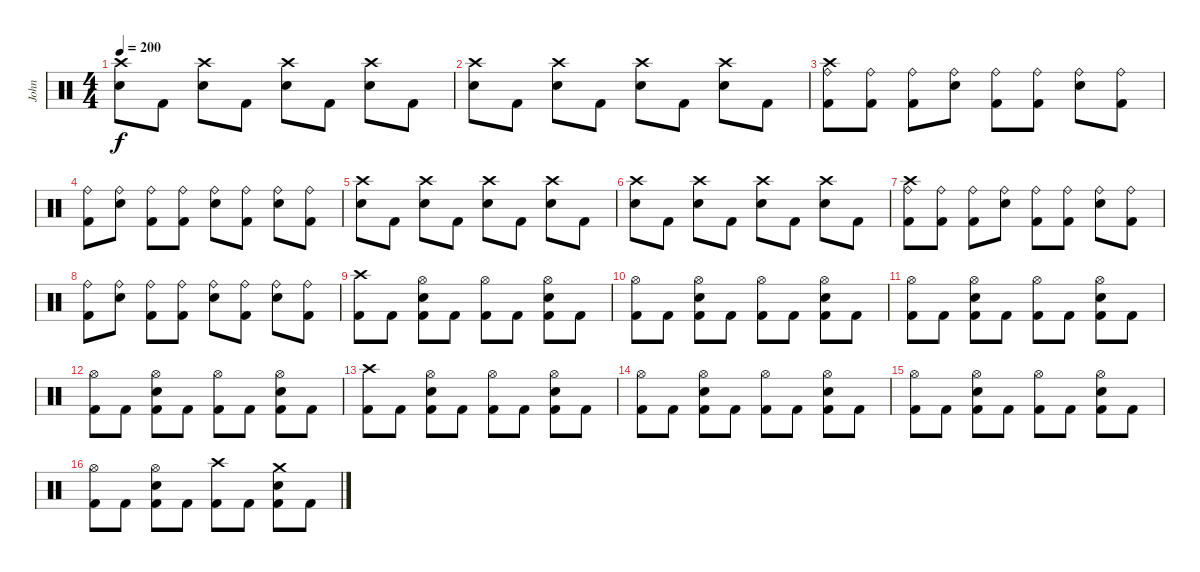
\track ("John" "John") {instrument percussion}
\staff {score}
\articulation defaults
\ts (4 4)
\tempo 200
\clef neutral
\ks c
("Crash high (hit)" "Electric Snare (hit)").8{dy f} "Kick (hit) 2".8 ("Crash high (hit)" "Electric Snare (hit)").8 "Kick (hit) 2".8 ("Crash high (hit)" "Electric Snare (hit)").8 "Kick (hit) 2".8 ("Crash high (hit)" "Electric Snare (hit)").8 "Kick (hit) 2".8 |
("Crash high (hit)" "Electric Snare (hit)").8 "Kick (hit) 2".8 ("Crash high (hit)" "Electric Snare (hit)").8 "Kick (hit) 2".8 ("Crash high (hit)" "Electric Snare (hit)").8 "Kick (hit) 2".8 ("Crash high (hit)" "Electric Snare (hit)").8 "Kick (hit) 2".8 |
("Ride (bell)" "Crash high (hit)" "Kick (hit) 2").8 ("Ride (bell)" "Kick (hit) 2").8 ("Ride (bell)" "Kick (hit) 2").8 ("Ride (bell)" "Electric Snare (hit)").8 ("Ride (bell)" "Kick (hit) 2").8 ("Ride (bell)" "Kick (hit) 2").8 ("Ride (bell)" "Electric Snare (hit)").8 ("Ride (bell)" "Kick (hit) 2").8 |
("Ride (bell)" "Kick (hit) 2").8 ("Ride (bell)" "Electric Snare (hit)").8 ("Ride (bell)" "Kick (hit) 2").8 ("Ride (bell)" "Kick (hit) 2").8 ("Ride (bell)" "Electric Snare (hit)").8 ("Ride (bell)" "Kick (hit) 2").8 ("Ride (bell)" "Electric Snare (hit)").8 ("Ride (bell)" "Kick (hit) 2").8 |
("Crash high (hit)" "Electric Snare (hit)").8 "Kick (hit) 2".8 ("Crash high (hit)" "Electric Snare (hit)").8 "Kick (hit) 2".8 ("Crash high (hit)" "Electric Snare (hit)").8 "Kick (hit) 2".8 ("Crash high (hit)" "Electric Snare (hit)").8 "Kick (hit) 2".8 |
("Crash high (hit)" "Electric Snare (hit)").8 "Kick (hit) 2".8 ("Crash high (hit)" "Electric Snare (hit)").8 "Kick (hit) 2".8 ("Crash high (hit)" "Electric Snare (hit)").8 "Kick (hit) 2".8 ("Crash high (hit)" "Electric Snare (hit)").8 "Kick (hit) 2".8 |
("Ride (bell)" "Crash high (hit)" "Kick (hit) 2").8 ("Ride (bell)" "Kick (hit) 2").8 ("Ride (bell)" "Kick (hit) 2").8 ("Ride (bell)" "Electric Snare (hit)").8 ("Ride (bell)" "Kick (hit) 2").8 ("Ride (bell)" "Kick (hit) 2").8 ("Ride (bell)" "Electric Snare (hit)").8 ("Ride (bell)" "Kick (hit) 2").8 |
("Ride (bell)" "Kick (hit) 2").8 ("Ride (bell)" "Electric Snare (hit)").8 ("Ride (bell)" "Kick (hit) 2").8 ("Ride (bell)" "Kick (hit) 2").8 ("Ride (bell)" "Electric Snare (hit)").8 ("Ride (bell)" "Kick (hit) 2").8 ("Ride (bell)" "Electric Snare (hit)").8 ("Ride (bell)" "Kick (hit) 2").8 |
("Crash high (hit)" "Kick (hit) 2").8 "Kick (hit) 2".8 ("Hi-Hat (open)" "Electric Snare (hit)" "Kick (hit) 2").8 "Kick (hit) 2".8 ("Hi-Hat (open)" "Kick (hit) 2").8 "Kick (hit) 2".8 ("Hi-Hat (open)" "Electric Snare (hit)" "Kick (hit) 2").8 "Kick (hit) 2".8 |
("Hi-Hat (open)" "Kick (hit) 2").8 "Kick (hit) 2".8 ("Hi-Hat (open)" "Electric Snare (hit)" "Kick (hit) 2").8 "Kick (hit) 2".8 ("Hi-Hat (open)" "Kick (hit) 2").8 "Kick (hit) 2".8 ("Hi-Hat (open)" "Electric Snare (hit)" "Kick (hit) 2").8 "Kick (hit) 2".8 |
("Hi-Hat (open)" "Kick (hit) 2").8 "Kick (hit) 2".8 ("Hi-Hat (open)" "Electric Snare (hit)" "Kick (hit) 2").8 "Kick (hit) 2".8 ("Hi-Hat (open)" "Kick (hit) 2").8 "Kick (hit) 2".8 ("Hi-Hat (open)" "Electric Snare (hit)" "Kick (hit) 2").8 "Kick (hit) 2".8 |
("Hi-Hat (open)" "Kick (hit) 2").8 "Kick (hit) 2".8 ("Hi-Hat (open)" "Electric Snare (hit)" "Kick (hit) 2").8 "Kick (hit) 2".8 ("Hi-Hat (open)" "Kick (hit) 2").8 "Kick (hit) 2".8 ("Hi-Hat (open)" "Electric Snare (hit)" "Kick (hit) 2").8 "Kick (hit) 2".8 |
("Crash high (hit)" "Kick (hit) 2").8 "Kick (hit) 2".8 ("Hi-Hat (open)" "Electric Snare (hit)" "Kick (hit) 2").8 "Kick (hit) 2".8 ("Hi-Hat (open)" "Kick (hit) 2").8 "Kick (hit) 2".8 ("Hi-Hat (open)" "Electric Snare (hit)" "Kick (hit) 2").8 "Kick (hit) 2".8 |
("Hi-Hat (open)" "Kick (hit) 2").8 "Kick (hit) 2".8 ("Hi-Hat (open)" "Electric Snare (hit)" "Kick (hit) 2").8 "Kick (hit) 2".8 ("Hi-Hat (open)" "Kick (hit) 2").8 "Kick (hit) 2".8 ("Hi-Hat (open)" "Electric Snare (hit)" "Kick (hit) 2").8 "Kick (hit) 2".8 |
("Hi-Hat (open)" "Kick (hit) 2").8 "Kick (hit) 2".8 ("Hi-Hat (open)" "Electric Snare (hit)" "Kick (hit) 2").8 "Kick (hit) 2".8 ("Hi-Hat (open)" "Kick (hit) 2").8 "Kick (hit) 2".8 ("Hi-Hat (open)" "Electric Snare (hit)" "Kick (hit) 2").8 "Kick (hit) 2".8 |
("Hi-Hat (open)" "Kick (hit) 2").8 "Kick (hit) 2".8 ("Hi-Hat (open)" "Electric Snare (hit)" "Kick (hit) 2").8 "Kick (hit) 2".8 ("Crash high (hit)" "Kick (hit) 2").8 "Kick (hit) 2".8 ("Crash medium (hit)" "Electric Snare (hit)" "Kick (hit) 2").8 "Kick (hit) 2".8
